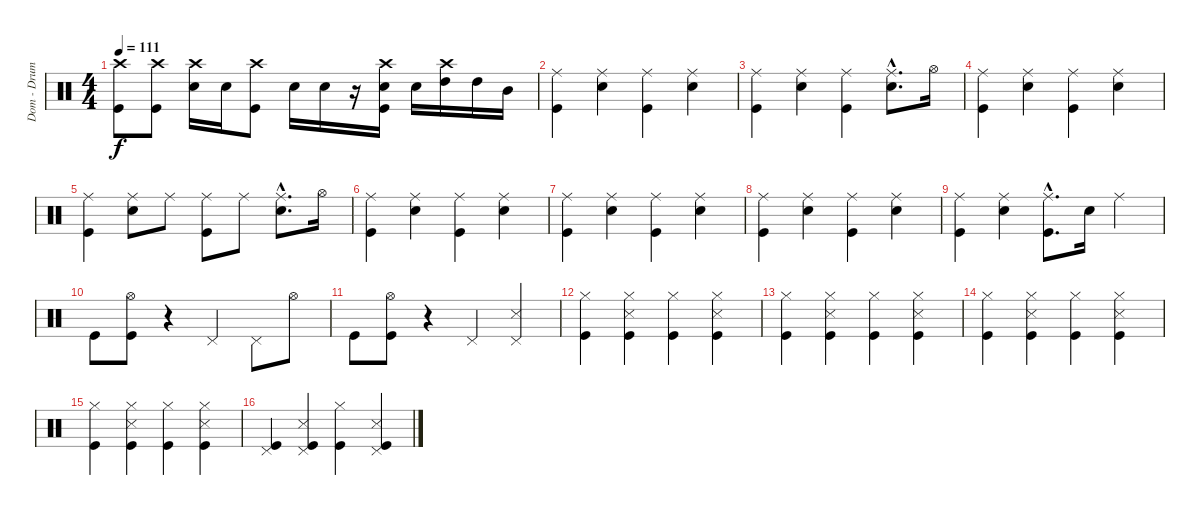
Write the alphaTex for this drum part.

\track ("Dom - Drums" "Dom - Drum") {instrument percussion}
\staff {score}
\articulation defaults
\ts (4 4)
\tempo 111
\clef neutral
\ks c
("Crash high (hit)" "Kick (hit)").8{dy f} ("Crash high (hit)" "Kick (hit)").8 ("Crash high (hit)" "Electric Snare (hit)").16 "Electric Snare (hit)".16 ("Crash high (hit)" "Kick (hit)").8 "Electric Snare (hit)".16 "Electric Snare (hit)".16 r.16 ("Crash high (hit)" "Electric Snare (hit)" "Kick (hit)").16 "Electric Snare (hit)".16 ("Crash high (hit)" "High Tom (hit)").16 "High Tom (hit)".16 "Mid Tom (hit)".16 |
("Ride (middle)" "Kick (hit)").4 ("Ride (middle)" "Electric Snare (hit)").4 ("Ride (middle)" "Kick (hit)").4 ("Ride (middle)" "Electric Snare (hit)").4 |
("Ride (middle)" "Kick (hit)").4 ("Ride (middle)" "Electric Snare (hit)").4 ("Ride (middle)" "Kick (hit)").4 ("Ride (middle)"{hac} "Electric Snare (hit)"{hac}).8{d} "Hi-Hat (open)".16 |
("Ride (middle)" "Kick (hit)").4 ("Ride (middle)" "Electric Snare (hit)").4 ("Ride (middle)" "Kick (hit)").4 ("Ride (middle)" "Electric Snare (hit)").4 |
("Ride (middle)" "Kick (hit)").4 ("Ride (middle)" "Electric Snare (hit)").8 "Ride (middle)".8 ("Ride (middle)" "Kick (hit)").8 "Ride (middle)".8 ("Ride (middle)"{hac} "Electric Snare (hit)"{hac}).8{d} "Hi-Hat (open)".16 |
("Ride (middle)" "Kick (hit)").4 ("Ride (middle)" "Electric Snare (hit)").4 ("Ride (middle)" "Kick (hit)").4 ("Ride (middle)" "Electric Snare (hit)").4 |
("Ride (middle)" "Kick (hit)").4 ("Ride (middle)" "Electric Snare (hit)").4 ("Ride (middle)" "Kick (hit)").4 ("Ride (middle)" "Electric Snare (hit)").4 |
("Ride (middle)" "Kick (hit)").4 ("Ride (middle)" "Electric Snare (hit)").4 ("Ride (middle)" "Kick (hit)").4 ("Ride (middle)" "Electric Snare (hit)").4 |
("Ride (middle)" "Kick (hit)").4 ("Ride (middle)" "Electric Snare (hit)").4 ("Ride (middle)"{hac} "Kick (hit)"{hac}).8{d} "Electric Snare (hit)".16 "Ride (middle)".4 |
"Kick (hit)".8 ("Hi-Hat (open)" "Kick (hit)").8 r.4 "Pedal Hi-Hat (hit)".4 "Pedal Hi-Hat (hit)".8 "Hi-Hat (open)".8 |
"Kick (hit)".8 ("Hi-Hat (open)" "Kick (hit)").8 r.4 "Pedal Hi-Hat (hit)".4 ("Pedal Hi-Hat (hit)" "Snare (side stick) 3").4 |
("Hi-Hat (closed)" "Kick (hit)").4 ("Hi-Hat (closed)" "Snare (side stick) 3" "Kick (hit)").4 ("Hi-Hat (closed)" "Kick (hit)").4 ("Hi-Hat (closed)" "Snare (side stick) 3" "Kick (hit)").4 |
("Hi-Hat (closed)" "Kick (hit)").4 ("Hi-Hat (closed)" "Snare (side stick) 3" "Kick (hit)").4 ("Hi-Hat (closed)" "Kick (hit)").4 ("Hi-Hat (closed)" "Snare (side stick) 3" "Kick (hit)").4 |
("Hi-Hat (closed)" "Kick (hit)").4 ("Hi-Hat (closed)" "Snare (side stick) 3" "Kick (hit)").4 ("Hi-Hat (closed)" "Kick (hit)").4 ("Hi-Hat (closed)" "Snare (side stick) 3" "Kick (hit)").4 |
("Hi-Hat (closed)" "Kick (hit)").4 ("Hi-Hat (closed)" "Snare (side stick) 3" "Kick (hit)").4 ("Hi-Hat (closed)" "Kick (hit)").4 ("Hi-Hat (closed)" "Snare (side stick) 3" "Kick (hit)").4 |
("Pedal Hi-Hat (hit)" "Kick (hit)").4 ("Pedal Hi-Hat (hit)" "Snare (side stick) 3" "Kick (hit)").4 ("Hi-Hat (closed)" "Kick (hit)").4 ("Pedal Hi-Hat (hit)" "Snare (side stick) 3" "Kick (hit)").4
